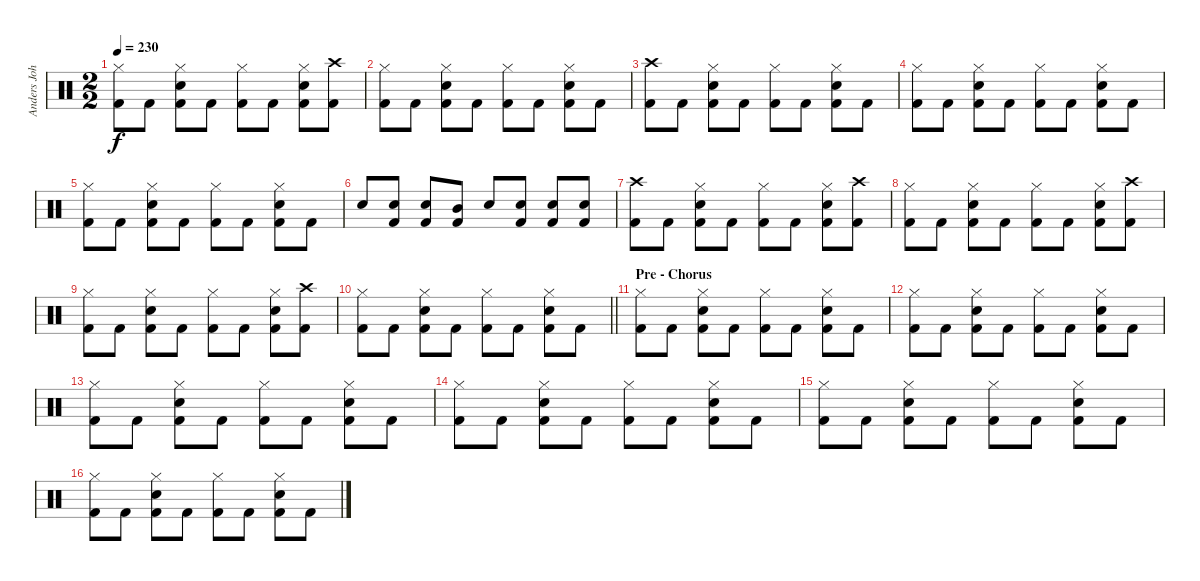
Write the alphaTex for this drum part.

\track ("Anders Johansson" "Anders Joh") {instrument percussion}
\staff {score}
\articulation defaults
\ts (2 2)
\tempo 230
\clef neutral
\ks c
("Hi-Hat (closed)" "Kick (hit) 2").8{dy f} "Kick (hit) 2".8 ("Electric Snare (hit)" "Hi-Hat (closed)" "Kick (hit) 2").8 "Kick (hit) 2".8 ("Hi-Hat (closed)" "Kick (hit) 2").8 "Kick (hit) 2".8 ("Electric Snare (hit)" "Hi-Hat (closed)" "Kick (hit) 2").8 ("Crash high (hit)" "Kick (hit) 2").8 |
("Hi-Hat (closed)" "Kick (hit) 2").8 "Kick (hit) 2".8 ("Electric Snare (hit)" "Hi-Hat (closed)" "Kick (hit) 2").8 "Kick (hit) 2".8 ("Hi-Hat (closed)" "Kick (hit) 2").8 "Kick (hit) 2".8 ("Electric Snare (hit)" "Hi-Hat (closed)" "Kick (hit) 2").8 "Kick (hit) 2".8 |
("Crash high (hit)" "Kick (hit) 2").8 "Kick (hit) 2".8 ("Electric Snare (hit)" "Hi-Hat (closed)" "Kick (hit) 2").8 "Kick (hit) 2".8 ("Hi-Hat (closed)" "Kick (hit) 2").8 "Kick (hit) 2".8 ("Electric Snare (hit)" "Hi-Hat (closed)" "Kick (hit) 2").8 "Kick (hit) 2".8 |
("Hi-Hat (closed)" "Kick (hit) 2").8 "Kick (hit) 2".8 ("Electric Snare (hit)" "Hi-Hat (closed)" "Kick (hit) 2").8 "Kick (hit) 2".8 ("Hi-Hat (closed)" "Kick (hit) 2").8 "Kick (hit) 2".8 ("Electric Snare (hit)" "Hi-Hat (closed)" "Kick (hit) 2").8 "Kick (hit) 2".8 |
("Hi-Hat (closed)" "Kick (hit) 2").8 "Kick (hit) 2".8 ("Electric Snare (hit)" "Hi-Hat (closed)" "Kick (hit) 2").8 "Kick (hit) 2".8 ("Hi-Hat (closed)" "Kick (hit) 2").8 "Kick (hit) 2".8 ("Electric Snare (hit)" "Hi-Hat (closed)" "Kick (hit) 2").8 "Kick (hit) 2".8 |
"Electric Snare (hit)".8 ("Electric Snare (hit)" "Kick (hit) 2").8 ("Electric Snare (hit)" "Kick (hit) 2").8 ("Mid Tom (hit)" "Kick (hit) 2").8 "Electric Snare (hit)".8 ("Electric Snare (hit)" "Kick (hit) 2").8 ("Electric Snare (hit)" "Kick (hit) 2").8 ("Electric Snare (hit)" "Kick (hit) 2").8 |
("Crash high (hit)" "Kick (hit) 2").8 "Kick (hit) 2".8 ("Electric Snare (hit)" "Hi-Hat (closed)" "Kick (hit) 2").8 "Kick (hit) 2".8 ("Hi-Hat (closed)" "Kick (hit) 2").8 "Kick (hit) 2".8 ("Electric Snare (hit)" "Hi-Hat (closed)" "Kick (hit) 2").8 ("Crash high (hit)" "Kick (hit) 2").8 |
("Hi-Hat (closed)" "Kick (hit) 2").8 "Kick (hit) 2".8 ("Electric Snare (hit)" "Hi-Hat (closed)" "Kick (hit) 2").8 "Kick (hit) 2".8 ("Hi-Hat (closed)" "Kick (hit) 2").8 "Kick (hit) 2".8 ("Electric Snare (hit)" "Hi-Hat (closed)" "Kick (hit) 2").8 ("Crash high (hit)" "Kick (hit) 2").8 |
("Hi-Hat (closed)" "Kick (hit) 2").8 "Kick (hit) 2".8 ("Electric Snare (hit)" "Hi-Hat (closed)" "Kick (hit) 2").8 "Kick (hit) 2".8 ("Hi-Hat (closed)" "Kick (hit) 2").8 "Kick (hit) 2".8 ("Electric Snare (hit)" "Hi-Hat (closed)" "Kick (hit) 2").8 ("Crash high (hit)" "Kick (hit) 2").8 |
\barLineRight lightlight
("Hi-Hat (closed)" "Kick (hit) 2").8 "Kick (hit) 2".8 ("Electric Snare (hit)" "Hi-Hat (closed)" "Kick (hit) 2").8 "Kick (hit) 2".8 ("Hi-Hat (closed)" "Kick (hit) 2").8 "Kick (hit) 2".8 ("Electric Snare (hit)" "Hi-Hat (closed)" "Kick (hit) 2").8 "Kick (hit) 2".8 |
\section ("" "Pre - Chorus")
("Hi-Hat (closed)" "Kick (hit) 2").8 "Kick (hit) 2".8 ("Electric Snare (hit)" "Hi-Hat (closed)" "Kick (hit) 2").8 "Kick (hit) 2".8 ("Hi-Hat (closed)" "Kick (hit) 2").8 "Kick (hit) 2".8 ("Electric Snare (hit)" "Hi-Hat (closed)" "Kick (hit) 2").8 "Kick (hit) 2".8 |
("Hi-Hat (closed)" "Kick (hit) 2").8 "Kick (hit) 2".8 ("Electric Snare (hit)" "Hi-Hat (closed)" "Kick (hit) 2").8 "Kick (hit) 2".8 ("Hi-Hat (closed)" "Kick (hit) 2").8 "Kick (hit) 2".8 ("Electric Snare (hit)" "Hi-Hat (closed)" "Kick (hit) 2").8 "Kick (hit) 2".8 |
("Hi-Hat (closed)" "Kick (hit) 2").8 "Kick (hit) 2".8 ("Electric Snare (hit)" "Hi-Hat (closed)" "Kick (hit) 2").8 "Kick (hit) 2".8 ("Hi-Hat (closed)" "Kick (hit) 2").8 "Kick (hit) 2".8 ("Electric Snare (hit)" "Hi-Hat (closed)" "Kick (hit) 2").8 "Kick (hit) 2".8 |
("Hi-Hat (closed)" "Kick (hit) 2").8 "Kick (hit) 2".8 ("Electric Snare (hit)" "Hi-Hat (closed)" "Kick (hit) 2").8 "Kick (hit) 2".8 ("Hi-Hat (closed)" "Kick (hit) 2").8 "Kick (hit) 2".8 ("Electric Snare (hit)" "Hi-Hat (closed)" "Kick (hit) 2").8 "Kick (hit) 2".8 |
("Hi-Hat (closed)" "Kick (hit) 2").8 "Kick (hit) 2".8 ("Electric Snare (hit)" "Hi-Hat (closed)" "Kick (hit) 2").8 "Kick (hit) 2".8 ("Hi-Hat (closed)" "Kick (hit) 2").8 "Kick (hit) 2".8 ("Electric Snare (hit)" "Hi-Hat (closed)" "Kick (hit) 2").8 "Kick (hit) 2".8 |
("Hi-Hat (closed)" "Kick (hit) 2").8 "Kick (hit) 2".8 ("Electric Snare (hit)" "Hi-Hat (closed)" "Kick (hit) 2").8 "Kick (hit) 2".8 ("Hi-Hat (closed)" "Kick (hit) 2").8 "Kick (hit) 2".8 ("Electric Snare (hit)" "Hi-Hat (closed)" "Kick (hit) 2").8 "Kick (hit) 2".8
